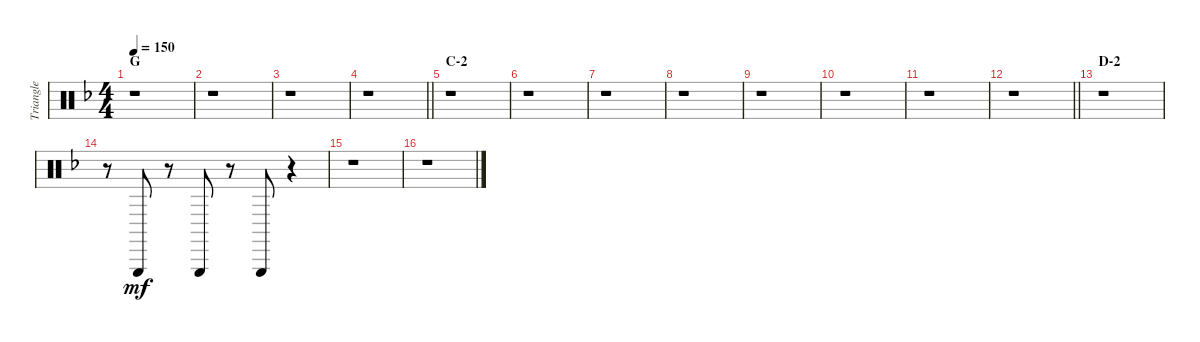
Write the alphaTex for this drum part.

\track ("Triangle" "Triangle") {instrument percussion}
\staff {score}
\articulation defaults
\ts (4 4)
\section ("" "G")
\tempo 150
\clef neutral
\ks f
r.1{dy mf} |
r.1 |
r.1 |
\barLineRight lightlight
r.1 |
\section ("" "C-2")
r.1 |
r.1 |
r.1 |
r.1 |
r.1 |
r.1 |
r.1 |
\barLineRight lightlight
r.1 |
\section ("" "D-2")
r.1 |
r.8 "Triangle (hit)".8 r.8 "Triangle (hit)".8 r.8 "Triangle (hit)".8 r.4 |
r.1 |
r.1
